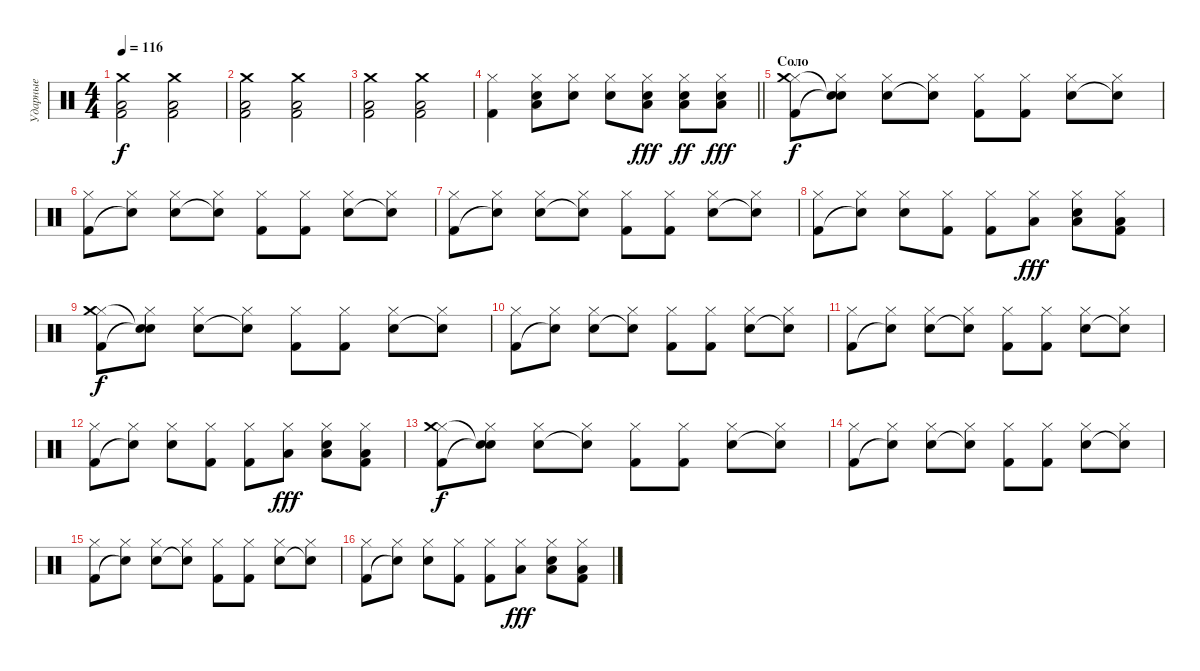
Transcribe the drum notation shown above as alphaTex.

\track ("Ударные" "Ударные") {instrument percussion}
\staff {score}
\articulation defaults
\ts (4 4)
\tempo 116
\clef neutral
\ks c
("Crash medium (hit)" "Kick (hit) 2" "Low Tom (hit)").2{dy f} ("Crash medium (hit)" "Kick (hit) 2" "Low Tom (hit)").2 |
("Crash medium (hit)" "Kick (hit) 2" "Low Tom (hit)").2 ("Crash medium (hit)" "Kick (hit) 2" "Low Tom (hit)").2 |
("Crash medium (hit)" "Kick (hit) 2" "Low Tom (hit)").2 ("Crash medium (hit)" "Kick (hit) 2" "Low Tom (hit)").2 |
\barLineRight lightlight
("Hi-Hat (closed)" "Kick (hit) 2").4{volume 16} ("Hi-Hat (closed)" "Snare (hit) 2" "Low Tom (hit)").8 ("Hi-Hat (closed)" "Snare (hit) 2").8 ("Hi-Hat (closed)" "Snare (hit) 2").8 ("Hi-Hat (closed)" "Snare (hit) 2" "Low Tom (hit)").8{dy fff} ("Hi-Hat (closed)" "Snare (hit) 2" "Low Tom (hit)").8{dy ff} ("Hi-Hat (closed)" "Snare (hit) 2" "Low Tom (hit)").8{dy fff} |
\section ("" "Соло")
("Hi-Hat (closed)" "Crash medium (hit)" "Kick (hit) 2").8{dy f} ("Hi-Hat (closed)" "Snare (hit)"{t} "Snare (hit)"{t}).8 ("Hi-Hat (closed)" "Snare (hit) 2").8 ("Hi-Hat (closed)" "Snare (hit)"{t}).8 ("Hi-Hat (closed)" "Kick (hit) 2").8 ("Hi-Hat (closed)" "Kick (hit) 2").8 ("Hi-Hat (closed)" "Snare (hit) 2").8 ("Hi-Hat (closed)" "Snare (hit)"{t}).8 |
("Hi-Hat (closed)" "Kick (hit) 2").8 ("Hi-Hat (closed)" "Snare (hit)"{t}).8 ("Hi-Hat (closed)" "Snare (hit) 2").8 ("Hi-Hat (closed)" "Snare (hit)"{t}).8 ("Hi-Hat (closed)" "Kick (hit) 2").8 ("Hi-Hat (closed)" "Kick (hit) 2").8 ("Hi-Hat (closed)" "Snare (hit) 2").8 ("Hi-Hat (closed)" "Snare (hit)"{t}).8 |
("Hi-Hat (closed)" "Kick (hit) 2").8 ("Hi-Hat (closed)" "Snare (hit)"{t}).8 ("Hi-Hat (closed)" "Snare (hit) 2").8 ("Hi-Hat (closed)" "Snare (hit)"{t}).8 ("Hi-Hat (closed)" "Kick (hit) 2").8 ("Hi-Hat (closed)" "Kick (hit) 2").8 ("Hi-Hat (closed)" "Snare (hit) 2").8 ("Hi-Hat (closed)" "Snare (hit)"{t}).8 |
("Hi-Hat (closed)" "Kick (hit) 2").8 ("Hi-Hat (closed)" "Snare (hit)"{t}).8 ("Hi-Hat (closed)" "Snare (hit) 2").8 ("Hi-Hat (closed)" "Kick (hit) 2").8 ("Hi-Hat (closed)" "Kick (hit) 2").8 ("Hi-Hat (closed)" "Low Tom (hit)").8{dy fff} ("Hi-Hat (closed)" "Snare (hit) 2" "Low Tom (hit)").8 ("Hi-Hat (closed)" "Kick (hit) 2" "Low Tom (hit)").8 |
("Hi-Hat (closed)" "Crash medium (hit)" "Kick (hit) 2").8{dy f} ("Hi-Hat (closed)" "Snare (hit)"{t} "Snare (hit)"{t}).8 ("Hi-Hat (closed)" "Snare (hit) 2").8 ("Hi-Hat (closed)" "Snare (hit)"{t}).8 ("Hi-Hat (closed)" "Kick (hit) 2").8 ("Hi-Hat (closed)" "Kick (hit) 2").8 ("Hi-Hat (closed)" "Snare (hit) 2").8 ("Hi-Hat (closed)" "Snare (hit)"{t}).8 |
("Hi-Hat (closed)" "Kick (hit) 2").8 ("Hi-Hat (closed)" "Snare (hit)"{t}).8 ("Hi-Hat (closed)" "Snare (hit) 2").8 ("Hi-Hat (closed)" "Snare (hit)"{t}).8 ("Hi-Hat (closed)" "Kick (hit) 2").8 ("Hi-Hat (closed)" "Kick (hit) 2").8 ("Hi-Hat (closed)" "Snare (hit) 2").8 ("Hi-Hat (closed)" "Snare (hit)"{t}).8 |
("Hi-Hat (closed)" "Kick (hit) 2").8 ("Hi-Hat (closed)" "Snare (hit)"{t}).8 ("Hi-Hat (closed)" "Snare (hit) 2").8 ("Hi-Hat (closed)" "Snare (hit)"{t}).8 ("Hi-Hat (closed)" "Kick (hit) 2").8 ("Hi-Hat (closed)" "Kick (hit) 2").8 ("Hi-Hat (closed)" "Snare (hit) 2").8 ("Hi-Hat (closed)" "Snare (hit)"{t}).8 |
("Hi-Hat (closed)" "Kick (hit) 2").8 ("Hi-Hat (closed)" "Snare (hit)"{t}).8 ("Hi-Hat (closed)" "Snare (hit) 2").8 ("Hi-Hat (closed)" "Kick (hit) 2").8 ("Hi-Hat (closed)" "Kick (hit) 2").8 ("Hi-Hat (closed)" "Low Tom (hit)").8{dy fff} ("Hi-Hat (closed)" "Snare (hit) 2" "Low Tom (hit)").8 ("Hi-Hat (closed)" "Kick (hit) 2" "Low Tom (hit)").8 |
("Hi-Hat (closed)" "Crash medium (hit)" "Kick (hit) 2").8{dy f} ("Hi-Hat (closed)" "Snare (hit)"{t} "Snare (hit)"{t}).8 ("Hi-Hat (closed)" "Snare (hit) 2").8 ("Hi-Hat (closed)" "Snare (hit)"{t}).8 ("Hi-Hat (closed)" "Kick (hit) 2").8 ("Hi-Hat (closed)" "Kick (hit) 2").8 ("Hi-Hat (closed)" "Snare (hit) 2").8 ("Hi-Hat (closed)" "Snare (hit)"{t}).8 |
("Hi-Hat (closed)" "Kick (hit) 2").8 ("Hi-Hat (closed)" "Snare (hit)"{t}).8 ("Hi-Hat (closed)" "Snare (hit) 2").8 ("Hi-Hat (closed)" "Snare (hit)"{t}).8 ("Hi-Hat (closed)" "Kick (hit) 2").8 ("Hi-Hat (closed)" "Kick (hit) 2").8 ("Hi-Hat (closed)" "Snare (hit) 2").8 ("Hi-Hat (closed)" "Snare (hit)"{t}).8 |
("Hi-Hat (closed)" "Kick (hit) 2").8 ("Hi-Hat (closed)" "Snare (hit)"{t}).8 ("Hi-Hat (closed)" "Snare (hit) 2").8 ("Hi-Hat (closed)" "Snare (hit)"{t}).8 ("Hi-Hat (closed)" "Kick (hit) 2").8 ("Hi-Hat (closed)" "Kick (hit) 2").8 ("Hi-Hat (closed)" "Snare (hit) 2").8 ("Hi-Hat (closed)" "Snare (hit)"{t}).8 |
("Hi-Hat (closed)" "Kick (hit) 2").8 ("Hi-Hat (closed)" "Snare (hit)"{t}).8 ("Hi-Hat (closed)" "Snare (hit) 2").8 ("Hi-Hat (closed)" "Kick (hit) 2").8 ("Hi-Hat (closed)" "Kick (hit) 2").8 ("Hi-Hat (closed)" "Low Tom (hit)").8{dy fff} ("Hi-Hat (closed)" "Snare (hit) 2" "Low Tom (hit)").8 ("Hi-Hat (closed)" "Kick (hit) 2" "Low Tom (hit)").8
